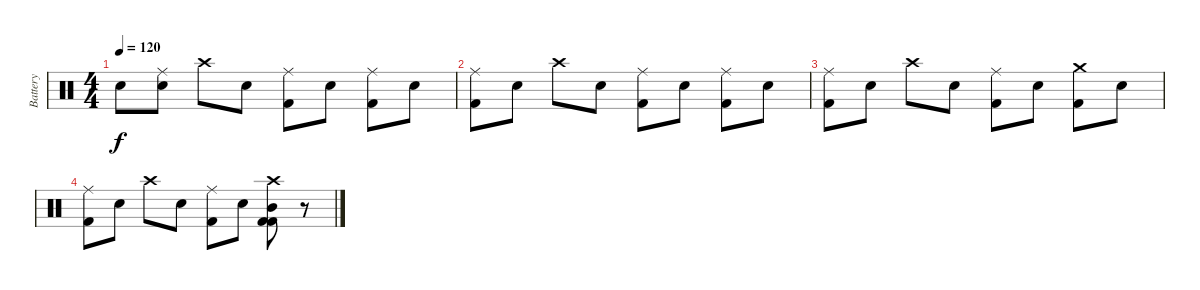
\track ("Battery" "Battery") {instrument percussion}
\staff {score}
\articulation defaults
\ts (4 4)
\tempo 120
\clef neutral
\ks c "Electric Snare (hit)".8{dy f}
("Ride (middle)" "Electric Snare (hit)").8 "Crash high (hit)".8 "Electric Snare (hit)".8 ("Ride (middle)" "Kick (hit) 2").8 "Electric Snare (hit)".8 ("Ride (middle)" "Kick (hit) 2").8 "Electric Snare (hit)".8 |
("Ride (middle)" "Kick (hit) 2").8 "Electric Snare (hit)".8 "Crash high (hit)".8 "Electric Snare (hit)".8 ("Ride (middle)" "Kick (hit) 2").8 "Electric Snare (hit)".8 ("Ride (middle)" "Kick (hit) 2").8 "Electric Snare (hit)".8 |
("Ride (middle)" "Kick (hit) 2").8 "Electric Snare (hit)".8 "Crash high (hit)".8 "Electric Snare (hit)".8 ("Ride (middle)" "Kick (hit) 2").8 "Electric Snare (hit)".8 ("Crash medium (hit)" "Kick (hit) 2").8 "Electric Snare (hit)".8 |
("Ride (middle)" "Kick (hit) 2").8 "Electric Snare (hit)".8 "Crash high (hit)".8 "Electric Snare (hit)".8 ("Ride (middle)" "Kick (hit) 2").8 "Electric Snare (hit)".8 ("Crash high (hit)" "Mid Tom (hit)" "Kick (hit) 2" "Kick (hit) 2").8 r.8
